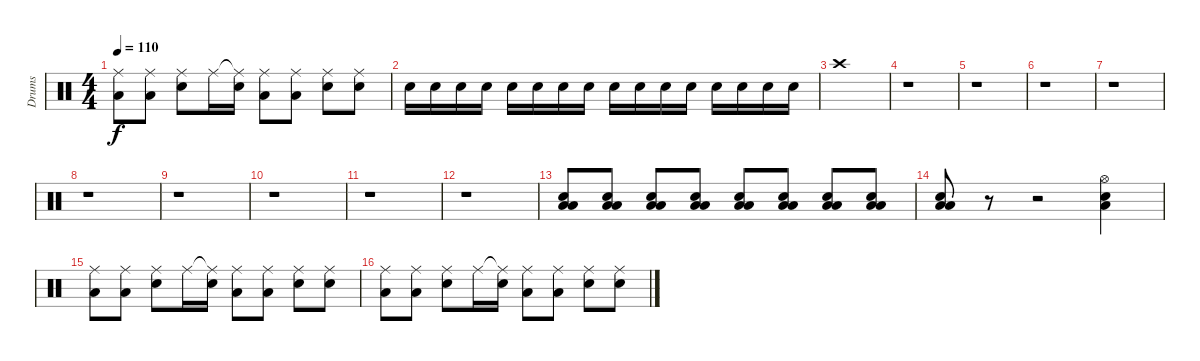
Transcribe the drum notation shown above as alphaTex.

\track ("Drums" "Drums") {instrument percussion}
\staff {score}
\articulation defaults
\ts (4 4)
\tempo 110
\clef neutral
\ks c
("Ride (middle)" "Low Floor Tom (hit)").8{dy f} ("Ride (middle)" "Low Floor Tom (hit)").8 ("Ride (middle)" "Snare (hit) 2").8 "Ride (middle)".16 ("Ride (middle)"{t} "Snare (hit) 2").16 ("Ride (middle)" "Low Floor Tom (hit)").8 ("Ride (middle)" "Low Floor Tom (hit)").8 ("Ride (middle)" "Snare (hit) 2").8 ("Ride (middle)" "Snare (hit) 2").8 |
"Snare (hit) 2".16 "Snare (hit) 2".16 "Snare (hit) 2".16 "Snare (hit) 2".16 "Snare (hit) 2".16 "Snare (hit) 2".16 "Snare (hit) 2".16 "Snare (hit) 2".16 "Snare (hit) 2".16 "Snare (hit) 2".16 "Snare (hit) 2".16 "Snare (hit) 2".16 "Snare (hit) 2".16 "Snare (hit) 2".16 "Snare (hit) 2".16 "Snare (hit) 2".16 |
"Crash high (hit)".1 |
r.1 |
r.1 |
r.1 |
r.1 |
r.1 |
r.1 |
r.1 |
r.1 |
r.1 |
("Low Floor Tom (hit)" "Low Tom (hit)" "Snare (hit) 2").8 ("Low Floor Tom (hit)" "Low Tom (hit)" "Snare (hit) 2").8 ("Low Floor Tom (hit)" "Low Tom (hit)" "Snare (hit) 2").8 ("Low Floor Tom (hit)" "Low Tom (hit)" "Snare (hit) 2").8 ("Low Floor Tom (hit)" "Low Tom (hit)" "Snare (hit) 2").8 ("Low Floor Tom (hit)" "Low Tom (hit)" "Snare (hit) 2").8 ("Low Floor Tom (hit)" "Low Tom (hit)" "Snare (hit) 2").8 ("Low Floor Tom (hit)" "Low Tom (hit)" "Snare (hit) 2").8 |
("Low Floor Tom (hit)" "Low Tom (hit)" "Snare (hit) 2").8 r.8 r.2 ("Hi-Hat (open)" "Snare (hit) 2" "Low Floor Tom (hit)").4 |
("Ride (middle)" "Low Floor Tom (hit)").8 ("Ride (middle)" "Low Floor Tom (hit)").8 ("Ride (middle)" "Snare (hit) 2").8 "Ride (middle)".16 ("Ride (middle)"{t} "Snare (hit) 2").16 ("Ride (middle)" "Low Floor Tom (hit)").8 ("Ride (middle)" "Low Floor Tom (hit)").8 ("Ride (middle)" "Snare (hit) 2").8 ("Ride (middle)" "Snare (hit) 2").8 |
("Ride (middle)" "Low Floor Tom (hit)").8 ("Ride (middle)" "Low Floor Tom (hit)").8 ("Ride (middle)" "Snare (hit) 2").8 "Ride (middle)".16 ("Ride (middle)"{t} "Snare (hit) 2").16 ("Ride (middle)" "Low Floor Tom (hit)").8 ("Ride (middle)" "Low Floor Tom (hit)").8 ("Ride (middle)" "Snare (hit) 2").8 ("Ride (middle)" "Snare (hit) 2").8
